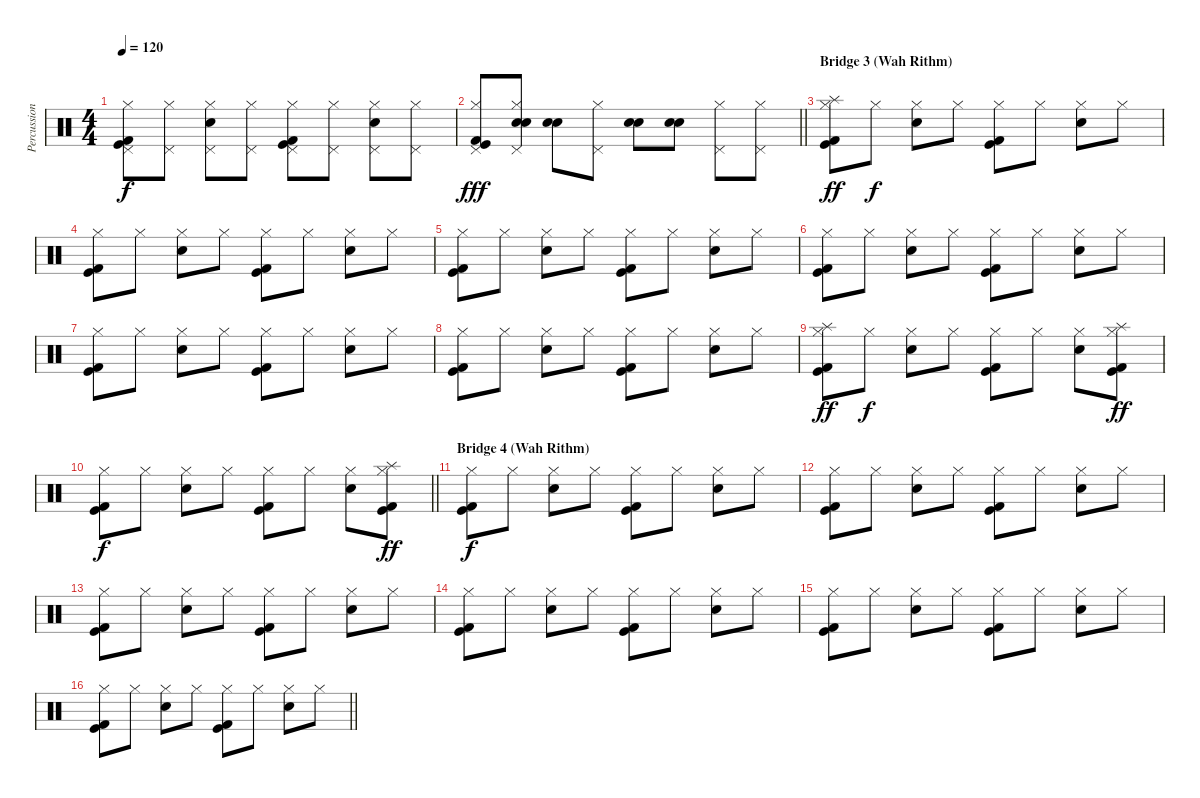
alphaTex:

\track ("Percussion" "Percussion") {instrument percussion}
\staff {score}
\articulation defaults
\ts (4 4)
\tempo 120
\clef neutral
\ks c
("Pedal Hi-Hat (hit)" "Hi-Hat (closed)" "Kick (hit)" "Kick (hit) 2").8{dy f} ("Pedal Hi-Hat (hit)" "Hi-Hat (closed)").8 ("Snare (hit) 2" "Pedal Hi-Hat (hit)" "Hi-Hat (closed)").8 ("Pedal Hi-Hat (hit)" "Hi-Hat (closed)").8 ("Pedal Hi-Hat (hit)" "Hi-Hat (closed)" "Kick (hit)" "Kick (hit) 2").8 ("Pedal Hi-Hat (hit)" "Hi-Hat (closed)").8 ("Snare (hit) 2" "Pedal Hi-Hat (hit)" "Hi-Hat (closed)").8 ("Pedal Hi-Hat (hit)" "Hi-Hat (closed)").8 |
\barLineRight lightlight
("Pedal Hi-Hat (hit)" "Hi-Hat (closed)" "Kick (hit)" "Kick (hit) 2").8{dy fff} ("Snare (hit) 2" "Electric Snare (hit)" "Pedal Hi-Hat (hit)" "Hi-Hat (closed)").8 ("Snare (hit) 2" "Electric Snare (hit)").8 ("Pedal Hi-Hat (hit)" "Hi-Hat (closed)").8 ("Snare (hit) 2" "Electric Snare (hit)").8 ("Snare (hit) 2" "Electric Snare (hit)").8 ("Pedal Hi-Hat (hit)" "Hi-Hat (closed)").8 ("Pedal Hi-Hat (hit)" "Hi-Hat (closed)").8 |
\section ("" "Bridge 3 (Wah Rithm)")
("Splash (hit)" "Hi-Hat (closed)" "Kick (hit)" "Kick (hit) 2").8{dy ff} "Hi-Hat (closed)".8{dy f} ("Snare (hit) 2" "Hi-Hat (closed)").8 "Hi-Hat (closed)".8 ("Hi-Hat (closed)" "Kick (hit)" "Kick (hit) 2").8 "Hi-Hat (closed)".8 ("Snare (hit) 2" "Hi-Hat (closed)").8 "Hi-Hat (closed)".8 |
("Hi-Hat (closed)" "Kick (hit)" "Kick (hit) 2").8 "Hi-Hat (closed)".8 ("Snare (hit) 2" "Hi-Hat (closed)").8 "Hi-Hat (closed)".8 ("Hi-Hat (closed)" "Kick (hit)" "Kick (hit) 2").8 "Hi-Hat (closed)".8 ("Snare (hit) 2" "Hi-Hat (closed)").8 "Hi-Hat (closed)".8 |
("Hi-Hat (closed)" "Kick (hit)" "Kick (hit) 2").8 "Hi-Hat (closed)".8 ("Snare (hit) 2" "Hi-Hat (closed)").8 "Hi-Hat (closed)".8 ("Hi-Hat (closed)" "Kick (hit)" "Kick (hit) 2").8 "Hi-Hat (closed)".8 ("Snare (hit) 2" "Hi-Hat (closed)").8 "Hi-Hat (closed)".8 |
("Hi-Hat (closed)" "Kick (hit)" "Kick (hit) 2").8 "Hi-Hat (closed)".8 ("Snare (hit) 2" "Hi-Hat (closed)").8 "Hi-Hat (closed)".8 ("Hi-Hat (closed)" "Kick (hit)" "Kick (hit) 2").8 "Hi-Hat (closed)".8 ("Snare (hit) 2" "Hi-Hat (closed)").8 "Hi-Hat (closed)".8 |
("Hi-Hat (closed)" "Kick (hit)" "Kick (hit) 2").8 "Hi-Hat (closed)".8 ("Snare (hit) 2" "Hi-Hat (closed)").8 "Hi-Hat (closed)".8 ("Hi-Hat (closed)" "Kick (hit)" "Kick (hit) 2").8 "Hi-Hat (closed)".8 ("Snare (hit) 2" "Hi-Hat (closed)").8 "Hi-Hat (closed)".8 |
("Hi-Hat (closed)" "Kick (hit)" "Kick (hit) 2").8 "Hi-Hat (closed)".8 ("Snare (hit) 2" "Hi-Hat (closed)").8 "Hi-Hat (closed)".8 ("Hi-Hat (closed)" "Kick (hit)" "Kick (hit) 2").8 "Hi-Hat (closed)".8 ("Snare (hit) 2" "Hi-Hat (closed)").8 "Hi-Hat (closed)".8 |
("Splash (hit)" "Hi-Hat (closed)" "Kick (hit)" "Kick (hit) 2").8{dy ff} "Hi-Hat (closed)".8{dy f} ("Snare (hit) 2" "Hi-Hat (closed)").8 "Hi-Hat (closed)".8 ("Hi-Hat (closed)" "Kick (hit)" "Kick (hit) 2").8 "Hi-Hat (closed)".8 ("Snare (hit) 2" "Hi-Hat (closed)").8 ("Splash (hit)" "Hi-Hat (closed)" "Kick (hit)" "Kick (hit) 2").8{dy ff} |
\barLineRight lightlight
("Hi-Hat (closed)" "Kick (hit)" "Kick (hit) 2").8{dy f} "Hi-Hat (closed)".8 ("Snare (hit) 2" "Hi-Hat (closed)").8 "Hi-Hat (closed)".8 ("Hi-Hat (closed)" "Kick (hit)" "Kick (hit) 2").8 "Hi-Hat (closed)".8 ("Snare (hit) 2" "Hi-Hat (closed)").8 ("Splash (hit)" "Hi-Hat (closed)" "Kick (hit)" "Kick (hit) 2").8{dy ff} |
\section ("" "Bridge 4 (Wah Rithm)")
("Hi-Hat (closed)" "Kick (hit)" "Kick (hit) 2").8{dy f} "Hi-Hat (closed)".8 ("Snare (hit) 2" "Hi-Hat (closed)").8 "Hi-Hat (closed)".8 ("Hi-Hat (closed)" "Kick (hit)" "Kick (hit) 2").8 "Hi-Hat (closed)".8 ("Snare (hit) 2" "Hi-Hat (closed)").8 "Hi-Hat (closed)".8 |
("Hi-Hat (closed)" "Kick (hit)" "Kick (hit) 2").8 "Hi-Hat (closed)".8 ("Snare (hit) 2" "Hi-Hat (closed)").8 "Hi-Hat (closed)".8 ("Hi-Hat (closed)" "Kick (hit)" "Kick (hit) 2").8 "Hi-Hat (closed)".8 ("Snare (hit) 2" "Hi-Hat (closed)").8 "Hi-Hat (closed)".8 |
("Hi-Hat (closed)" "Kick (hit)" "Kick (hit) 2").8 "Hi-Hat (closed)".8 ("Snare (hit) 2" "Hi-Hat (closed)").8 "Hi-Hat (closed)".8 ("Hi-Hat (closed)" "Kick (hit)" "Kick (hit) 2").8 "Hi-Hat (closed)".8 ("Snare (hit) 2" "Hi-Hat (closed)").8 "Hi-Hat (closed)".8 |
("Hi-Hat (closed)" "Kick (hit)" "Kick (hit) 2").8 "Hi-Hat (closed)".8 ("Snare (hit) 2" "Hi-Hat (closed)").8 "Hi-Hat (closed)".8 ("Hi-Hat (closed)" "Kick (hit)" "Kick (hit) 2").8 "Hi-Hat (closed)".8 ("Snare (hit) 2" "Hi-Hat (closed)").8 "Hi-Hat (closed)".8 |
("Hi-Hat (closed)" "Kick (hit)" "Kick (hit) 2").8 "Hi-Hat (closed)".8 ("Snare (hit) 2" "Hi-Hat (closed)").8 "Hi-Hat (closed)".8 ("Hi-Hat (closed)" "Kick (hit)" "Kick (hit) 2").8 "Hi-Hat (closed)".8 ("Snare (hit) 2" "Hi-Hat (closed)").8 "Hi-Hat (closed)".8 |
\barLineRight lightlight
("Hi-Hat (closed)" "Kick (hit)" "Kick (hit) 2").8 "Hi-Hat (closed)".8 ("Snare (hit) 2" "Hi-Hat (closed)").8 "Hi-Hat (closed)".8 ("Hi-Hat (closed)" "Kick (hit)" "Kick (hit) 2").8 "Hi-Hat (closed)".8 ("Snare (hit) 2" "Hi-Hat (closed)").8 "Hi-Hat (closed)".8
